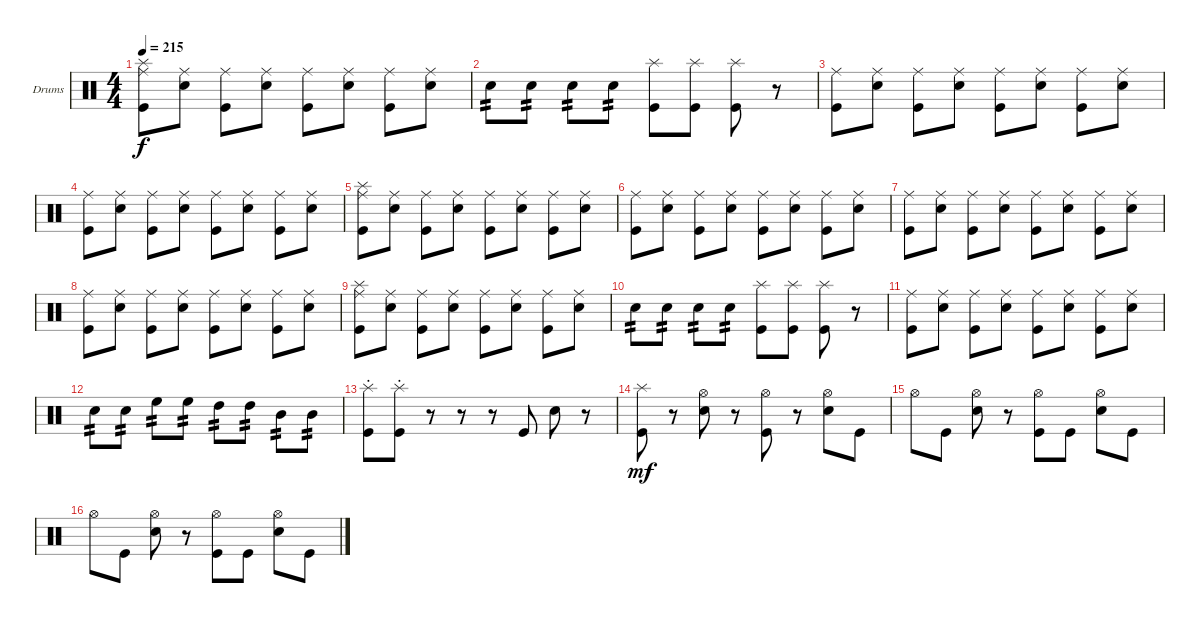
\bracketExtendMode groupsimilarinstruments
\firstSystemTrackNameOrientation horizontal
\otherSystemsTrackNameOrientation horizontal
\track ("Drumkit" "Drums") {instrument percussion}
\staff {score}
\articulation defaults
\ts (4 4)
\tempo 215
\clef neutral
\ks c
("Kick (hit)" "Ride (middle)" "Splash (hit)").8{dy f} ("Snare (hit) 2" "Ride (middle)").8 ("Kick (hit)" "Ride (middle)").8 ("Snare (hit) 2" "Ride (middle)").8 ("Kick (hit)" "Ride (middle)").8 ("Snare (hit) 2" "Ride (middle)").8 ("Kick (hit)" "Ride (middle)").8 ("Snare (hit) 2" "Ride (middle)").8 |
"Snare (hit) 2".8{tp 2} "Snare (hit) 2".8{tp 2} "Snare (hit) 2".8{tp 2} "Snare (hit) 2".8{tp 2} ("Kick (hit)" "Splash (hit)").8 ("Kick (hit)" "Splash (hit)").8 ("Kick (hit)" "Splash (hit)").8 r.8 |
("Kick (hit)" "Ride (middle)").8 ("Snare (hit) 2" "Ride (middle)").8 ("Kick (hit)" "Ride (middle)").8 ("Snare (hit) 2" "Ride (middle)").8 ("Kick (hit)" "Ride (middle)").8 ("Snare (hit) 2" "Ride (middle)").8 ("Kick (hit)" "Ride (middle)").8 ("Snare (hit) 2" "Ride (middle)").8 |
("Kick (hit)" "Ride (middle)").8 ("Snare (hit) 2" "Ride (middle)").8 ("Kick (hit)" "Ride (middle)").8 ("Snare (hit) 2" "Ride (middle)").8 ("Kick (hit)" "Ride (middle)").8 ("Snare (hit) 2" "Ride (middle)").8 ("Kick (hit)" "Ride (middle)").8 ("Snare (hit) 2" "Ride (middle)").8 |
("Kick (hit)" "Splash (hit)" "Ride (middle)").8 ("Snare (hit) 2" "Ride (middle)").8 ("Kick (hit)" "Ride (middle)").8 ("Snare (hit) 2" "Ride (middle)").8 ("Kick (hit)" "Ride (middle)").8 ("Snare (hit) 2" "Ride (middle)").8 ("Kick (hit)" "Ride (middle)").8 ("Snare (hit) 2" "Ride (middle)").8 |
("Kick (hit)" "Ride (middle)").8 ("Snare (hit) 2" "Ride (middle)").8 ("Kick (hit)" "Ride (middle)").8 ("Snare (hit) 2" "Ride (middle)").8 ("Kick (hit)" "Ride (middle)").8 ("Snare (hit) 2" "Ride (middle)").8 ("Kick (hit)" "Ride (middle)").8 ("Snare (hit) 2" "Ride (middle)").8 |
("Kick (hit)" "Ride (middle)").8 ("Snare (hit) 2" "Ride (middle)").8 ("Kick (hit)" "Ride (middle)").8 ("Snare (hit) 2" "Ride (middle)").8 ("Kick (hit)" "Ride (middle)").8 ("Snare (hit) 2" "Ride (middle)").8 ("Kick (hit)" "Ride (middle)").8 ("Snare (hit) 2" "Ride (middle)").8 |
("Kick (hit)" "Ride (middle)").8 ("Snare (hit) 2" "Ride (middle)").8 ("Kick (hit)" "Ride (middle)").8 ("Snare (hit) 2" "Ride (middle)").8 ("Kick (hit)" "Ride (middle)").8 ("Snare (hit) 2" "Ride (middle)").8 ("Kick (hit)" "Ride (middle)").8 ("Snare (hit) 2" "Ride (middle)").8 |
("Kick (hit)" "Ride (middle)" "Splash (hit)").8 ("Snare (hit) 2" "Ride (middle)").8 ("Kick (hit)" "Ride (middle)").8 ("Snare (hit) 2" "Ride (middle)").8 ("Kick (hit)" "Ride (middle)").8 ("Snare (hit) 2" "Ride (middle)").8 ("Kick (hit)" "Ride (middle)").8 ("Snare (hit) 2" "Ride (middle)").8 |
"Snare (hit) 2".8{tp 2} "Snare (hit) 2".8{tp 2} "Snare (hit) 2".8{tp 2} "Snare (hit) 2".8{tp 2} ("Kick (hit)" "Splash (hit)").8 ("Kick (hit)" "Splash (hit)").8 ("Kick (hit)" "Splash (hit)").8 r.8 |
("Kick (hit)" "Ride (middle)").8 ("Snare (hit) 2" "Ride (middle)").8 ("Kick (hit)" "Ride (middle)").8 ("Snare (hit) 2" "Ride (middle)").8 ("Kick (hit)" "Ride (middle)").8 ("Snare (hit) 2" "Ride (middle)").8 ("Kick (hit)" "Ride (middle)").8 ("Snare (hit) 2" "Ride (middle)").8 |
"Snare (hit) 2".8{tp 2} "Snare (hit) 2".8{tp 2} "High Floor Tom (hit)".8{tp 2} "High Floor Tom (hit)".8{tp 2} "High Tom (hit)".8{tp 2} "High Tom (hit)".8{tp 2} "Mid Tom (hit)".8{tp 2} "Mid Tom (hit)".8{tp 2} |
("Kick (hit)"{st} "Splash (hit)"{st}).8 ("Kick (hit)"{st} "Splash (hit)"{st}).8 r.8 r.8 r.8 "Kick (hit)".8 "Snare (hit) 2".8 r.8 |
("Kick (hit)" "Splash (hit)").8{dy mf} r.8 ("Snare (hit) 2" "Hi-Hat (open)").8 r.8 ("Kick (hit)" "Hi-Hat (open)").8 r.8 ("Snare (hit) 2" "Hi-Hat (open)").8 "Kick (hit)".8 |
"Hi-Hat (open)".8 "Kick (hit)".8 ("Snare (hit) 2" "Hi-Hat (open)").8 r.8 ("Kick (hit)" "Hi-Hat (open)").8 "Kick (hit)".8 ("Snare (hit) 2" "Hi-Hat (open)").8 "Kick (hit)".8 |
"Hi-Hat (open)".8 "Kick (hit)".8 ("Snare (hit) 2" "Hi-Hat (open)").8 r.8 ("Kick (hit)" "Hi-Hat (open)").8 "Kick (hit)".8 ("Snare (hit) 2" "Hi-Hat (open)").8 "Kick (hit)".8
